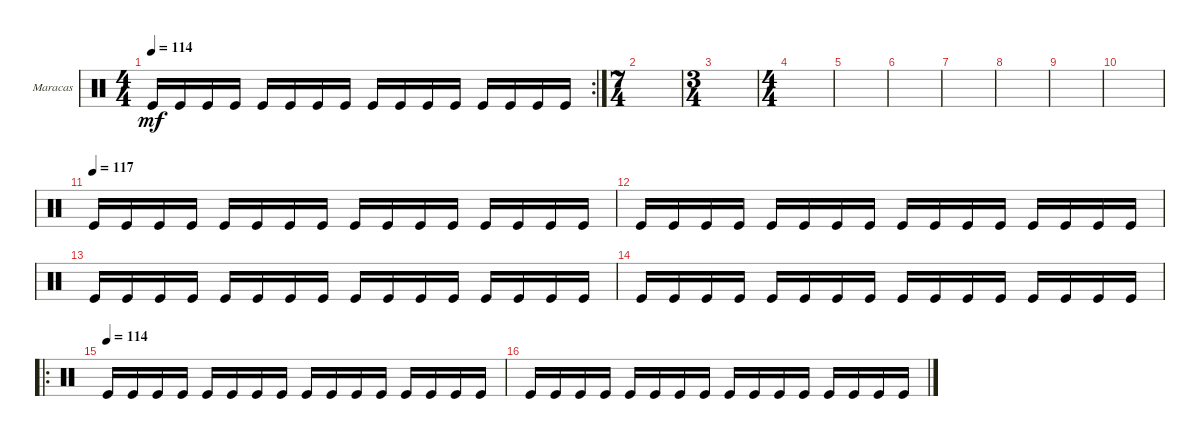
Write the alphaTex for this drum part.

\defaultSystemsLayout 4
\bracketExtendMode groupsimilarinstruments
\firstSystemTrackNameOrientation horizontal
\otherSystemsTrackNameOrientation horizontal
\track ("Maracas" "Maracas") {instrument percussion}
\staff {score}
\articulation defaults
\rc 2
\ts (4 4)
\tempo 114
\clef neutral
\ks c "Kick (hit)".16{dy mf} "Kick (hit)".16 "Kick (hit)".16 "Kick (hit)".16 "Kick (hit)".16 "Kick (hit)".16 "Kick (hit)".16 "Kick (hit)".16 "Kick (hit)".16 "Kick (hit)".16 "Kick (hit)".16 "Kick (hit)".16 "Kick (hit)".16 "Kick (hit)".16 "Kick (hit)".16 "Kick (hit)".16
|
\ts (7 4)
|
\ts (3 4)
|
\ts (4 4)
|
|
|
|
|
|
|
\tempo (117)
"Kick (hit)".16 "Kick (hit)".16 "Kick (hit)".16 "Kick (hit)".16 "Kick (hit)".16 "Kick (hit)".16 "Kick (hit)".16 "Kick (hit)".16 "Kick (hit)".16 "Kick (hit)".16 "Kick (hit)".16 "Kick (hit)".16 "Kick (hit)".16 "Kick (hit)".16 "Kick (hit)".16 "Kick (hit)".16 |
"Kick (hit)".16 "Kick (hit)".16 "Kick (hit)".16 "Kick (hit)".16 "Kick (hit)".16 "Kick (hit)".16 "Kick (hit)".16 "Kick (hit)".16 "Kick (hit)".16 "Kick (hit)".16 "Kick (hit)".16 "Kick (hit)".16 "Kick (hit)".16 "Kick (hit)".16 "Kick (hit)".16 "Kick (hit)".16 |
"Kick (hit)".16 "Kick (hit)".16 "Kick (hit)".16 "Kick (hit)".16 "Kick (hit)".16 "Kick (hit)".16 "Kick (hit)".16 "Kick (hit)".16 "Kick (hit)".16 "Kick (hit)".16 "Kick (hit)".16 "Kick (hit)".16 "Kick (hit)".16 "Kick (hit)".16 "Kick (hit)".16 "Kick (hit)".16 |
"Kick (hit)".16 "Kick (hit)".16 "Kick (hit)".16 "Kick (hit)".16 "Kick (hit)".16 "Kick (hit)".16 "Kick (hit)".16 "Kick (hit)".16 "Kick (hit)".16 "Kick (hit)".16 "Kick (hit)".16 "Kick (hit)".16 "Kick (hit)".16 "Kick (hit)".16 "Kick (hit)".16 "Kick (hit)".16 |
\ro
\tempo (114)
"Kick (hit)".16 "Kick (hit)".16 "Kick (hit)".16 "Kick (hit)".16 "Kick (hit)".16 "Kick (hit)".16 "Kick (hit)".16 "Kick (hit)".16 "Kick (hit)".16 "Kick (hit)".16 "Kick (hit)".16 "Kick (hit)".16 "Kick (hit)".16 "Kick (hit)".16 "Kick (hit)".16 "Kick (hit)".16 |
"Kick (hit)".16 "Kick (hit)".16 "Kick (hit)".16 "Kick (hit)".16 "Kick (hit)".16 "Kick (hit)".16 "Kick (hit)".16 "Kick (hit)".16 "Kick (hit)".16 "Kick (hit)".16 "Kick (hit)".16 "Kick (hit)".16 "Kick (hit)".16 "Kick (hit)".16 "Kick (hit)".16 "Kick (hit)".16
